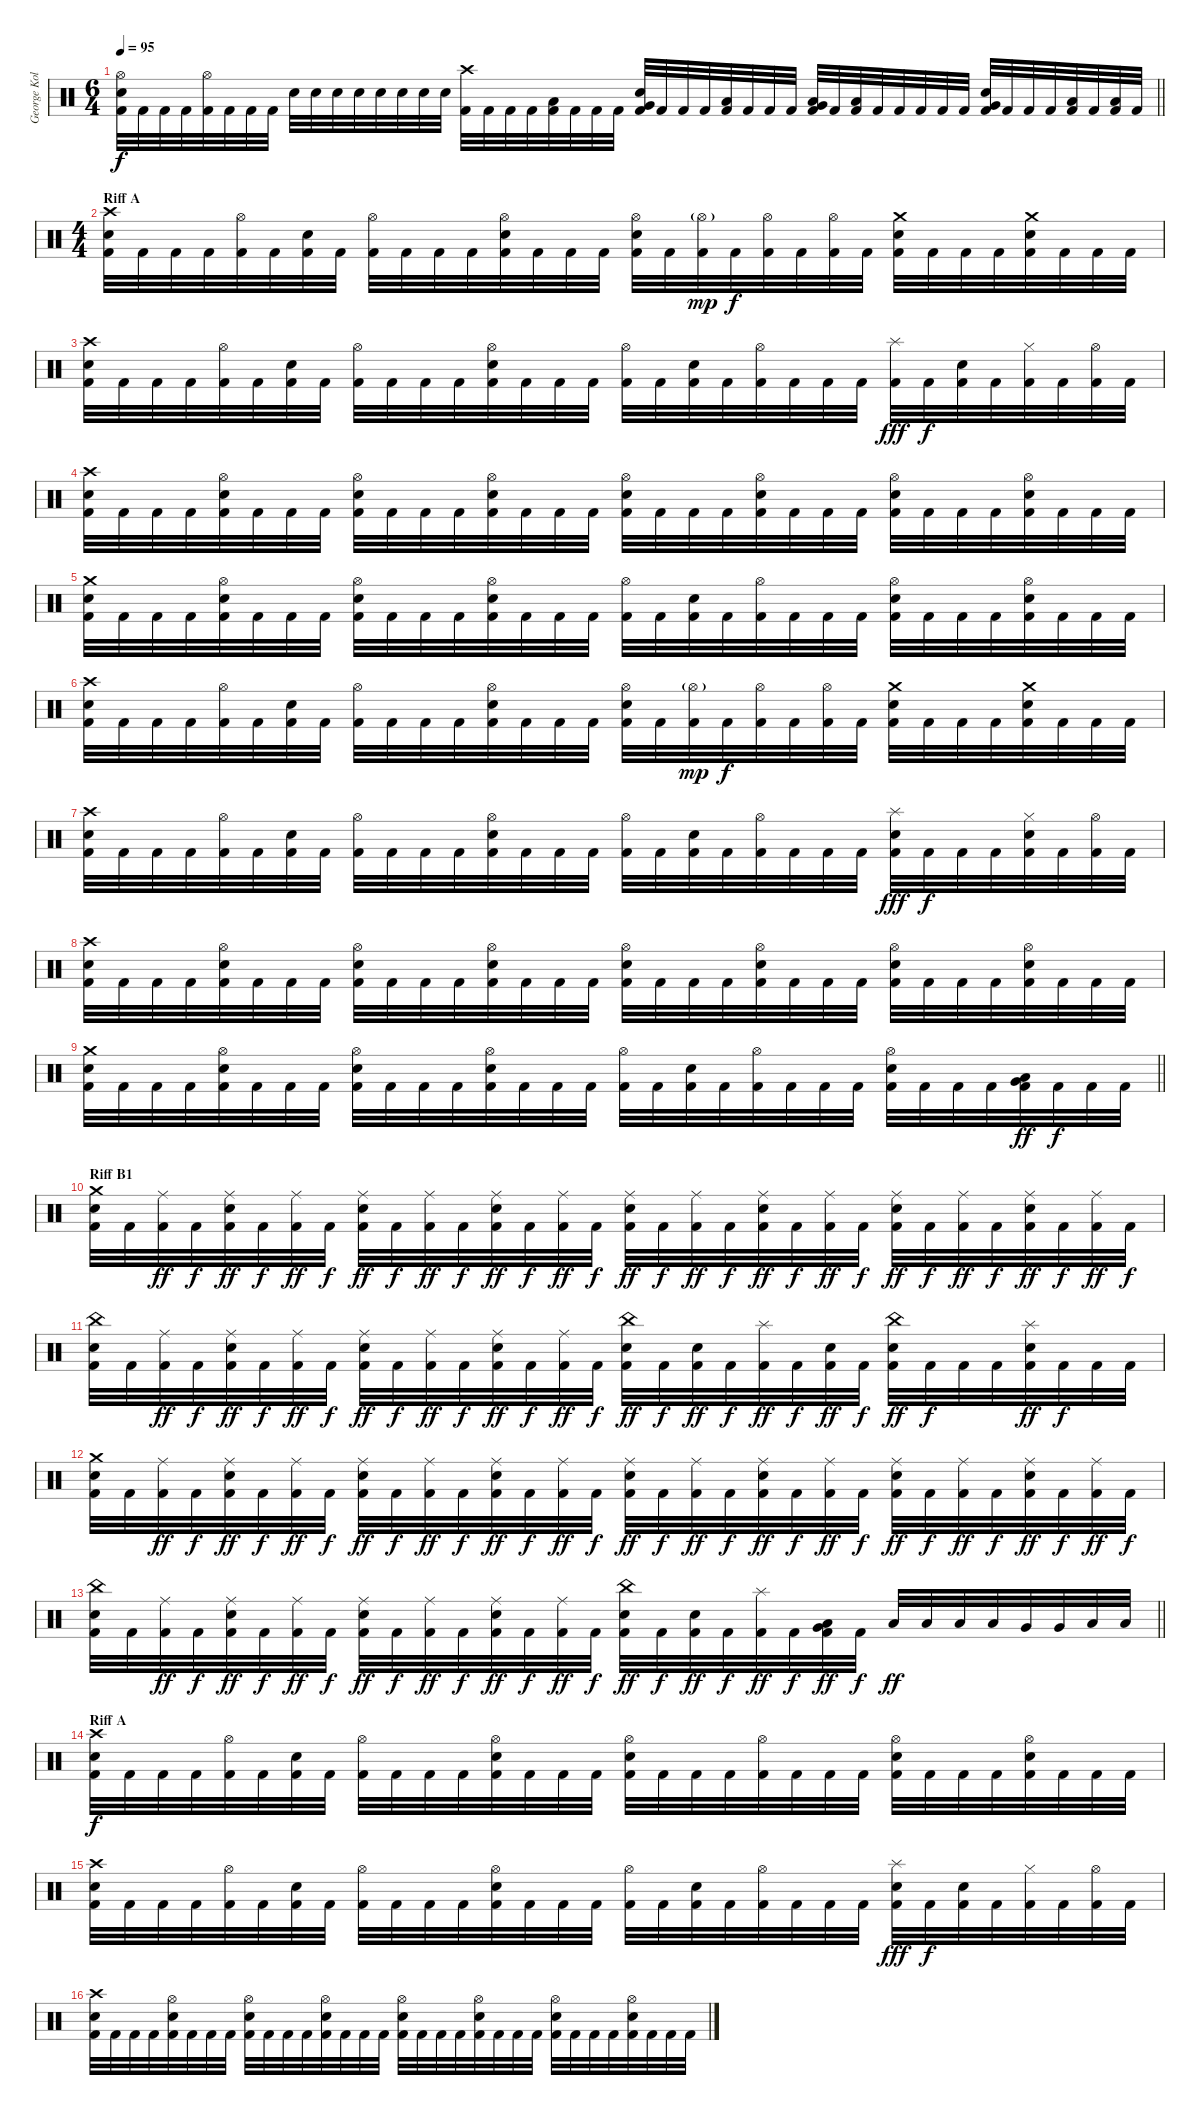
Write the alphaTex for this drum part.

\track ("George Kollias" "George Kol") {instrument percussion}
\staff {score}
\articulation defaults
\ts (6 4)
\tempo 95
\clef neutral
\barLineRight lightlight
\ks c
("Hi-Hat (open)" "Snare (hit) 2" "Kick (hit) 2").32{dy f} "Kick (hit) 2".32 "Kick (hit) 2".32 "Kick (hit) 2".32 ("Hi-Hat (open)" "Kick (hit) 2").32 "Kick (hit) 2".32 "Kick (hit) 2".32 "Kick (hit) 2".32 "Snare (hit) 2".32 "Snare (hit) 2".32 "Snare (hit) 2".32 "Snare (hit) 2".32 "Snare (hit) 2".32 "Snare (hit) 2".32 "Snare (hit) 2".32 "Snare (hit) 2".32 ("Crash high (hit)" "Kick (hit) 2").32 "Kick (hit) 2".32 "Kick (hit) 2".32 "Kick (hit) 2".32 ("Low Floor Tom (hit)" "Kick (hit) 2").32 "Kick (hit) 2".32 "Kick (hit) 2".32 "Kick (hit) 2".32 ("Very Low Tom (hit)" "Snare (hit) 2" "Kick (hit) 2").32 "Kick (hit) 2".32 "Kick (hit) 2".32 "Kick (hit) 2".32 ("Low Floor Tom (hit)" "Kick (hit) 2").32 "Kick (hit) 2".32 "Kick (hit) 2".32 "Kick (hit) 2".32 ("Very Low Tom (hit)" "Low Floor Tom (hit)" "Kick (hit) 2").32 "Kick (hit) 2".32 ("Low Floor Tom (hit)" "Kick (hit) 2").32 "Kick (hit) 2".32 "Kick (hit) 2".32 "Kick (hit) 2".32 "Kick (hit) 2".32 "Kick (hit) 2".32 ("Very Low Tom (hit)" "Snare (hit) 2" "Kick (hit) 2").32 "Kick (hit) 2".32 "Kick (hit) 2".32 "Kick (hit) 2".32 ("Low Floor Tom (hit)" "Kick (hit) 2").32 "Kick (hit) 2".32 ("Low Floor Tom (hit)" "Kick (hit) 2").32 "Kick (hit) 2".32 |
\ts (4 4)
\section ("" "Riff A")
("Crash high (hit)" "Snare (hit) 2" "Kick (hit) 2").32 "Kick (hit) 2".32 "Kick (hit) 2".32 "Kick (hit) 2".32 ("Hi-Hat (open)" "Kick (hit) 2").32 "Kick (hit) 2".32 ("Snare (hit) 2" "Kick (hit) 2").32 "Kick (hit) 2".32 ("Hi-Hat (open)" "Kick (hit) 2").32 "Kick (hit) 2".32 "Kick (hit) 2".32 "Kick (hit) 2".32 ("Hi-Hat (open)" "Snare (hit) 2" "Kick (hit) 2").32 "Kick (hit) 2".32 "Kick (hit) 2".32 "Kick (hit) 2".32 ("Hi-Hat (open)" "Snare (hit) 2" "Kick (hit) 2").32 "Kick (hit) 2".32 ("Hi-Hat (open)"{g} "Kick (hit) 2").32{dy mp} "Kick (hit) 2".32{dy f} ("Hi-Hat (open)" "Kick (hit) 2").32 "Kick (hit) 2".32 ("Hi-Hat (open)" "Kick (hit) 2").32 "Kick (hit) 2".32 ("Crash medium (hit)" "Snare (hit) 2" "Kick (hit) 2").32 "Kick (hit) 2".32 "Kick (hit) 2".32 "Kick (hit) 2".32 ("Crash medium (hit)" "Snare (hit) 2" "Kick (hit) 2").32 "Kick (hit) 2".32 "Kick (hit) 2".32 "Kick (hit) 2".32 |
("Crash high (hit)" "Snare (hit) 2" "Kick (hit) 2").32 "Kick (hit) 2".32 "Kick (hit) 2".32 "Kick (hit) 2".32 ("Hi-Hat (open)" "Kick (hit) 2").32 "Kick (hit) 2".32 ("Snare (hit) 2" "Kick (hit) 2").32 "Kick (hit) 2".32 ("Hi-Hat (open)" "Kick (hit) 2").32 "Kick (hit) 2".32 "Kick (hit) 2".32 "Kick (hit) 2".32 ("Hi-Hat (open)" "Snare (hit) 2" "Kick (hit) 2").32 "Kick (hit) 2".32 "Kick (hit) 2".32 "Kick (hit) 2".32 ("Hi-Hat (open)" "Kick (hit) 2").32 "Kick (hit) 2".32 ("Snare (hit) 2" "Kick (hit) 2").32 "Kick (hit) 2".32 ("Hi-Hat (open)" "Kick (hit) 2").32 "Kick (hit) 2".32 "Kick (hit) 2".32 "Kick (hit) 2".32 ("Splash (hit)" "Kick (hit) 2").32{dy fff} "Kick (hit) 2".32{dy f} ("Snare (hit) 2" "Kick (hit) 2").32 "Kick (hit) 2".32 ("Hi-Hat (closed)" "Kick (hit) 2").32 "Kick (hit) 2".32 ("Hi-Hat (open)" "Kick (hit) 2").32 "Kick (hit) 2".32 |
("Crash high (hit)" "Snare (hit) 2" "Kick (hit) 2").32 "Kick (hit) 2".32 "Kick (hit) 2".32 "Kick (hit) 2".32 ("Hi-Hat (open)" "Snare (hit) 2" "Kick (hit) 2").32 "Kick (hit) 2".32 "Kick (hit) 2".32 "Kick (hit) 2".32 ("Hi-Hat (open)" "Snare (hit) 2" "Kick (hit) 2").32 "Kick (hit) 2".32 "Kick (hit) 2".32 "Kick (hit) 2".32 ("Hi-Hat (open)" "Snare (hit) 2" "Kick (hit) 2").32 "Kick (hit) 2".32 "Kick (hit) 2".32 "Kick (hit) 2".32 ("Hi-Hat (open)" "Snare (hit) 2" "Kick (hit) 2").32 "Kick (hit) 2".32 "Kick (hit) 2".32 "Kick (hit) 2".32 ("Hi-Hat (open)" "Snare (hit) 2" "Kick (hit) 2").32 "Kick (hit) 2".32 "Kick (hit) 2".32 "Kick (hit) 2".32 ("Hi-Hat (open)" "Snare (hit) 2" "Kick (hit) 2").32 "Kick (hit) 2".32 "Kick (hit) 2".32 "Kick (hit) 2".32 ("Hi-Hat (open)" "Snare (hit) 2" "Kick (hit) 2").32 "Kick (hit) 2".32 "Kick (hit) 2".32 "Kick (hit) 2".32 |
("Crash medium (hit)" "Snare (hit) 2" "Kick (hit) 2").32 "Kick (hit) 2".32 "Kick (hit) 2".32 "Kick (hit) 2".32 ("Hi-Hat (open)" "Snare (hit) 2" "Kick (hit) 2").32 "Kick (hit) 2".32 "Kick (hit) 2".32 "Kick (hit) 2".32 ("Hi-Hat (open)" "Snare (hit) 2" "Kick (hit) 2").32 "Kick (hit) 2".32 "Kick (hit) 2".32 "Kick (hit) 2".32 ("Hi-Hat (open)" "Snare (hit) 2" "Kick (hit) 2").32 "Kick (hit) 2".32 "Kick (hit) 2".32 "Kick (hit) 2".32 ("Hi-Hat (open)" "Kick (hit) 2").32 "Kick (hit) 2".32 ("Snare (hit) 2" "Kick (hit) 2").32 "Kick (hit) 2".32 ("Hi-Hat (open)" "Kick (hit) 2").32 "Kick (hit) 2".32 "Kick (hit) 2".32 "Kick (hit) 2".32 ("Hi-Hat (open)" "Snare (hit) 2" "Kick (hit) 2").32 "Kick (hit) 2".32 "Kick (hit) 2".32 "Kick (hit) 2".32 ("Hi-Hat (open)" "Snare (hit) 2" "Kick (hit) 2").32 "Kick (hit) 2".32 "Kick (hit) 2".32 "Kick (hit) 2".32 |
("Crash high (hit)" "Snare (hit) 2" "Kick (hit) 2").32 "Kick (hit) 2".32 "Kick (hit) 2".32 "Kick (hit) 2".32 ("Hi-Hat (open)" "Kick (hit) 2").32 "Kick (hit) 2".32 ("Snare (hit) 2" "Kick (hit) 2").32 "Kick (hit) 2".32 ("Hi-Hat (open)" "Kick (hit) 2").32 "Kick (hit) 2".32 "Kick (hit) 2".32 "Kick (hit) 2".32 ("Hi-Hat (open)" "Snare (hit) 2" "Kick (hit) 2").32 "Kick (hit) 2".32 "Kick (hit) 2".32 "Kick (hit) 2".32 ("Hi-Hat (open)" "Snare (hit) 2" "Kick (hit) 2").32 "Kick (hit) 2".32 ("Hi-Hat (open)"{g} "Kick (hit) 2").32{dy mp} "Kick (hit) 2".32{dy f} ("Hi-Hat (open)" "Kick (hit) 2").32 "Kick (hit) 2".32 ("Hi-Hat (open)" "Kick (hit) 2").32 "Kick (hit) 2".32 ("Crash medium (hit)" "Snare (hit) 2" "Kick (hit) 2").32 "Kick (hit) 2".32 "Kick (hit) 2".32 "Kick (hit) 2".32 ("Crash medium (hit)" "Snare (hit) 2" "Kick (hit) 2").32 "Kick (hit) 2".32 "Kick (hit) 2".32 "Kick (hit) 2".32 |
("Crash high (hit)" "Snare (hit) 2" "Kick (hit) 2").32 "Kick (hit) 2".32 "Kick (hit) 2".32 "Kick (hit) 2".32 ("Hi-Hat (open)" "Kick (hit) 2").32 "Kick (hit) 2".32 ("Snare (hit) 2" "Kick (hit) 2").32 "Kick (hit) 2".32 ("Hi-Hat (open)" "Kick (hit) 2").32 "Kick (hit) 2".32 "Kick (hit) 2".32 "Kick (hit) 2".32 ("Hi-Hat (open)" "Snare (hit) 2" "Kick (hit) 2").32 "Kick (hit) 2".32 "Kick (hit) 2".32 "Kick (hit) 2".32 ("Hi-Hat (open)" "Kick (hit) 2").32 "Kick (hit) 2".32 ("Snare (hit) 2" "Kick (hit) 2").32 "Kick (hit) 2".32 ("Hi-Hat (open)" "Kick (hit) 2").32 "Kick (hit) 2".32 "Kick (hit) 2".32 "Kick (hit) 2".32 ("Splash (hit)" "Snare (hit) 2" "Kick (hit) 2").32{dy fff} "Kick (hit) 2".32{dy f} "Kick (hit) 2".32 "Kick (hit) 2".32 ("Hi-Hat (closed)" "Snare (hit) 2" "Kick (hit) 2").32 "Kick (hit) 2".32 ("Hi-Hat (open)" "Kick (hit) 2").32 "Kick (hit) 2".32 |
("Crash high (hit)" "Snare (hit) 2" "Kick (hit) 2").32 "Kick (hit) 2".32 "Kick (hit) 2".32 "Kick (hit) 2".32 ("Hi-Hat (open)" "Snare (hit) 2" "Kick (hit) 2").32 "Kick (hit) 2".32 "Kick (hit) 2".32 "Kick (hit) 2".32 ("Hi-Hat (open)" "Snare (hit) 2" "Kick (hit) 2").32 "Kick (hit) 2".32 "Kick (hit) 2".32 "Kick (hit) 2".32 ("Hi-Hat (open)" "Snare (hit) 2" "Kick (hit) 2").32 "Kick (hit) 2".32 "Kick (hit) 2".32 "Kick (hit) 2".32 ("Hi-Hat (open)" "Snare (hit) 2" "Kick (hit) 2").32 "Kick (hit) 2".32 "Kick (hit) 2".32 "Kick (hit) 2".32 ("Hi-Hat (open)" "Snare (hit) 2" "Kick (hit) 2").32 "Kick (hit) 2".32 "Kick (hit) 2".32 "Kick (hit) 2".32 ("Hi-Hat (open)" "Snare (hit) 2" "Kick (hit) 2").32 "Kick (hit) 2".32 "Kick (hit) 2".32 "Kick (hit) 2".32 ("Hi-Hat (open)" "Snare (hit) 2" "Kick (hit) 2").32 "Kick (hit) 2".32 "Kick (hit) 2".32 "Kick (hit) 2".32 |
\barLineRight lightlight
("Crash medium (hit)" "Snare (hit) 2" "Kick (hit) 2").32 "Kick (hit) 2".32 "Kick (hit) 2".32 "Kick (hit) 2".32 ("Hi-Hat (open)" "Snare (hit) 2" "Kick (hit) 2").32 "Kick (hit) 2".32 "Kick (hit) 2".32 "Kick (hit) 2".32 ("Hi-Hat (open)" "Snare (hit) 2" "Kick (hit) 2").32 "Kick (hit) 2".32 "Kick (hit) 2".32 "Kick (hit) 2".32 ("Hi-Hat (open)" "Snare (hit) 2" "Kick (hit) 2").32 "Kick (hit) 2".32 "Kick (hit) 2".32 "Kick (hit) 2".32 ("Hi-Hat (open)" "Kick (hit) 2").32 "Kick (hit) 2".32 ("Snare (hit) 2" "Kick (hit) 2").32 "Kick (hit) 2".32 ("Hi-Hat (open)" "Kick (hit) 2").32 "Kick (hit) 2".32 "Kick (hit) 2".32 "Kick (hit) 2".32 ("Hi-Hat (open)" "Snare (hit) 2" "Kick (hit) 2").32 "Kick (hit) 2".32 "Kick (hit) 2".32 "Kick (hit) 2".32 ("Low Tom (hit)" "Very Low Tom (hit)" "Kick (hit) 2").32{dy ff} "Kick (hit) 2".32{dy f} "Kick (hit) 2".32 "Kick (hit) 2".32 |
\section ("" "Riff B1")
("Crash medium (hit)" "Snare (hit) 2" "Kick (hit) 2").32 "Kick (hit) 2".32 ("Ride (middle)" "Kick (hit) 2").32{dy ff} "Kick (hit) 2".32{dy f} ("Ride (middle)" "Snare (hit) 2" "Kick (hit) 2").32{dy ff} "Kick (hit) 2".32{dy f} ("Ride (middle)" "Kick (hit) 2").32{dy ff} "Kick (hit) 2".32{dy f} ("Ride (middle)" "Snare (hit) 2" "Kick (hit) 2").32{dy ff} "Kick (hit) 2".32{dy f} ("Ride (middle)" "Kick (hit) 2").32{dy ff} "Kick (hit) 2".32{dy f} ("Ride (middle)" "Snare (hit) 2" "Kick (hit) 2").32{dy ff} "Kick (hit) 2".32{dy f} ("Ride (middle)" "Kick (hit) 2").32{dy ff} "Kick (hit) 2".32{dy f} ("Ride (middle)" "Snare (hit) 2" "Kick (hit) 2").32{dy ff} "Kick (hit) 2".32{dy f} ("Ride (middle)" "Kick (hit) 2").32{dy ff} "Kick (hit) 2".32{dy f} ("Ride (middle)" "Snare (hit) 2" "Kick (hit) 2").32{dy ff} "Kick (hit) 2".32{dy f} ("Ride (middle)" "Kick (hit) 2").32{dy ff} "Kick (hit) 2".32{dy f} ("Ride (middle)" "Snare (hit) 2" "Kick (hit) 2").32{dy ff} "Kick (hit) 2".32{dy f} ("Ride (middle)" "Kick (hit) 2").32{dy ff} "Kick (hit) 2".32{dy f} ("Ride (middle)" "Snare (hit) 2" "Kick (hit) 2").32{dy ff} "Kick (hit) 2".32{dy f} ("Ride (middle)" "Kick (hit) 2").32{dy ff} "Kick (hit) 2".32{dy f} |
("China (hit)" "Snare (hit) 2" "Kick (hit) 2").32 "Kick (hit) 2".32 ("Ride (middle)" "Kick (hit) 2").32{dy ff} "Kick (hit) 2".32{dy f} ("Ride (middle)" "Snare (hit) 2" "Kick (hit) 2").32{dy ff} "Kick (hit) 2".32{dy f} ("Ride (middle)" "Kick (hit) 2").32{dy ff} "Kick (hit) 2".32{dy f} ("Ride (middle)" "Snare (hit) 2" "Kick (hit) 2").32{dy ff} "Kick (hit) 2".32{dy f} ("Ride (middle)" "Kick (hit) 2").32{dy ff} "Kick (hit) 2".32{dy f} ("Ride (middle)" "Snare (hit) 2" "Kick (hit) 2").32{dy ff} "Kick (hit) 2".32{dy f} ("Ride (middle)" "Kick (hit) 2").32{dy ff} "Kick (hit) 2".32{dy f} ("China (hit)" "Snare (hit) 2" "Kick (hit) 2").32{dy ff} "Kick (hit) 2".32{dy f} ("Snare (hit) 2" "Kick (hit) 2").32{dy ff} "Kick (hit) 2".32{dy f} ("Splash (hit)" "Kick (hit) 2").32{dy ff} "Kick (hit) 2".32{dy f} ("Snare (hit) 2" "Kick (hit) 2").32{dy ff} "Kick (hit) 2".32{dy f} ("China (hit)" "Snare (hit) 2" "Kick (hit) 2").32{dy ff} "Kick (hit) 2".32{dy f} "Kick (hit) 2".32 "Kick (hit) 2".32 ("Splash (hit)" "Snare (hit) 2" "Kick (hit) 2").32{dy ff} "Kick (hit) 2".32{dy f} "Kick (hit) 2".32 "Kick (hit) 2".32 |
("Crash medium (hit)" "Snare (hit) 2" "Kick (hit) 2").32 "Kick (hit) 2".32 ("Ride (middle)" "Kick (hit) 2").32{dy ff} "Kick (hit) 2".32{dy f} ("Ride (middle)" "Snare (hit) 2" "Kick (hit) 2").32{dy ff} "Kick (hit) 2".32{dy f} ("Ride (middle)" "Kick (hit) 2").32{dy ff} "Kick (hit) 2".32{dy f} ("Ride (middle)" "Snare (hit) 2" "Kick (hit) 2").32{dy ff} "Kick (hit) 2".32{dy f} ("Ride (middle)" "Kick (hit) 2").32{dy ff} "Kick (hit) 2".32{dy f} ("Ride (middle)" "Snare (hit) 2" "Kick (hit) 2").32{dy ff} "Kick (hit) 2".32{dy f} ("Ride (middle)" "Kick (hit) 2").32{dy ff} "Kick (hit) 2".32{dy f} ("Ride (middle)" "Snare (hit) 2" "Kick (hit) 2").32{dy ff} "Kick (hit) 2".32{dy f} ("Ride (middle)" "Kick (hit) 2").32{dy ff} "Kick (hit) 2".32{dy f} ("Ride (middle)" "Snare (hit) 2" "Kick (hit) 2").32{dy ff} "Kick (hit) 2".32{dy f} ("Ride (middle)" "Kick (hit) 2").32{dy ff} "Kick (hit) 2".32{dy f} ("Ride (middle)" "Snare (hit) 2" "Kick (hit) 2").32{dy ff} "Kick (hit) 2".32{dy f} ("Ride (middle)" "Kick (hit) 2").32{dy ff} "Kick (hit) 2".32{dy f} ("Ride (middle)" "Snare (hit) 2" "Kick (hit) 2").32{dy ff} "Kick (hit) 2".32{dy f} ("Ride (middle)" "Kick (hit) 2").32{dy ff} "Kick (hit) 2".32{dy f} |
\barLineRight lightlight
("China (hit)" "Snare (hit) 2" "Kick (hit) 2").32 "Kick (hit) 2".32 ("Ride (middle)" "Kick (hit) 2").32{dy ff} "Kick (hit) 2".32{dy f} ("Ride (middle)" "Snare (hit) 2" "Kick (hit) 2").32{dy ff} "Kick (hit) 2".32{dy f} ("Ride (middle)" "Kick (hit) 2").32{dy ff} "Kick (hit) 2".32{dy f} ("Ride (middle)" "Snare (hit) 2" "Kick (hit) 2").32{dy ff} "Kick (hit) 2".32{dy f} ("Ride (middle)" "Kick (hit) 2").32{dy ff} "Kick (hit) 2".32{dy f} ("Ride (middle)" "Snare (hit) 2" "Kick (hit) 2").32{dy ff} "Kick (hit) 2".32{dy f} ("Ride (middle)" "Kick (hit) 2").32{dy ff} "Kick (hit) 2".32{dy f} ("China (hit)" "Snare (hit) 2" "Kick (hit) 2").32{dy ff} "Kick (hit) 2".32{dy f} ("Snare (hit) 2" "Kick (hit) 2").32{dy ff} "Kick (hit) 2".32{dy f} ("Splash (hit)" "Kick (hit) 2").32{dy ff} "Kick (hit) 2".32{dy f} ("Low Tom (hit)" "Very Low Tom (hit)" "Kick (hit) 2").32{dy ff} "Kick (hit) 2".32{dy f} "Low Tom (hit)".32{dy ff} "Low Tom (hit)".32 "Low Tom (hit)".32 "Low Tom (hit)".32 "Very Low Tom (hit)".32 "Very Low Tom (hit)".32 "Low Floor Tom (hit)".32 "Low Floor Tom (hit)".32 |
\section ("" "Riff A")
("Crash high (hit)" "Snare (hit) 2" "Kick (hit) 2").32{dy f} "Kick (hit) 2".32 "Kick (hit) 2".32 "Kick (hit) 2".32 ("Hi-Hat (open)" "Kick (hit) 2").32 "Kick (hit) 2".32 ("Snare (hit) 2" "Kick (hit) 2").32 "Kick (hit) 2".32 ("Hi-Hat (open)" "Kick (hit) 2").32 "Kick (hit) 2".32 "Kick (hit) 2".32 "Kick (hit) 2".32 ("Hi-Hat (open)" "Snare (hit) 2" "Kick (hit) 2").32 "Kick (hit) 2".32 "Kick (hit) 2".32 "Kick (hit) 2".32 ("Hi-Hat (open)" "Snare (hit) 2" "Kick (hit) 2").32 "Kick (hit) 2".32 "Kick (hit) 2".32 "Kick (hit) 2".32 ("Hi-Hat (open)" "Kick (hit) 2").32 "Kick (hit) 2".32 "Kick (hit) 2".32 "Kick (hit) 2".32 ("Hi-Hat (open)" "Snare (hit) 2" "Kick (hit) 2").32 "Kick (hit) 2".32 "Kick (hit) 2".32 "Kick (hit) 2".32 ("Hi-Hat (open)" "Snare (hit) 2" "Kick (hit) 2").32 "Kick (hit) 2".32 "Kick (hit) 2".32 "Kick (hit) 2".32 |
("Crash high (hit)" "Snare (hit) 2" "Kick (hit) 2").32 "Kick (hit) 2".32 "Kick (hit) 2".32 "Kick (hit) 2".32 ("Hi-Hat (open)" "Kick (hit) 2").32 "Kick (hit) 2".32 ("Snare (hit) 2" "Kick (hit) 2").32 "Kick (hit) 2".32 ("Hi-Hat (open)" "Kick (hit) 2").32 "Kick (hit) 2".32 "Kick (hit) 2".32 "Kick (hit) 2".32 ("Hi-Hat (open)" "Snare (hit) 2" "Kick (hit) 2").32 "Kick (hit) 2".32 "Kick (hit) 2".32 "Kick (hit) 2".32 ("Hi-Hat (open)" "Kick (hit) 2").32 "Kick (hit) 2".32 ("Snare (hit) 2" "Kick (hit) 2").32 "Kick (hit) 2".32 ("Hi-Hat (open)" "Kick (hit) 2").32 "Kick (hit) 2".32 "Kick (hit) 2".32 "Kick (hit) 2".32 ("Splash (hit)" "Snare (hit) 2" "Kick (hit) 2").32{dy fff} "Kick (hit) 2".32{dy f} ("Snare (hit) 2" "Kick (hit) 2").32 "Kick (hit) 2".32 ("Hi-Hat (closed)" "Kick (hit) 2").32 "Kick (hit) 2".32 ("Hi-Hat (open)" "Kick (hit) 2").32 "Kick (hit) 2".32 |
("Crash high (hit)" "Snare (hit) 2" "Kick (hit) 2").32 "Kick (hit) 2".32 "Kick (hit) 2".32 "Kick (hit) 2".32 ("Hi-Hat (open)" "Snare (hit) 2" "Kick (hit) 2").32 "Kick (hit) 2".32 "Kick (hit) 2".32 "Kick (hit) 2".32 ("Hi-Hat (open)" "Snare (hit) 2" "Kick (hit) 2").32 "Kick (hit) 2".32 "Kick (hit) 2".32 "Kick (hit) 2".32 ("Hi-Hat (open)" "Snare (hit) 2" "Kick (hit) 2").32 "Kick (hit) 2".32 "Kick (hit) 2".32 "Kick (hit) 2".32 ("Hi-Hat (open)" "Snare (hit) 2" "Kick (hit) 2").32 "Kick (hit) 2".32 "Kick (hit) 2".32 "Kick (hit) 2".32 ("Hi-Hat (open)" "Snare (hit) 2" "Kick (hit) 2").32 "Kick (hit) 2".32 "Kick (hit) 2".32 "Kick (hit) 2".32 ("Hi-Hat (open)" "Snare (hit) 2" "Kick (hit) 2").32 "Kick (hit) 2".32 "Kick (hit) 2".32 "Kick (hit) 2".32 ("Hi-Hat (open)" "Snare (hit) 2" "Kick (hit) 2").32 "Kick (hit) 2".32 "Kick (hit) 2".32 "Kick (hit) 2".32
